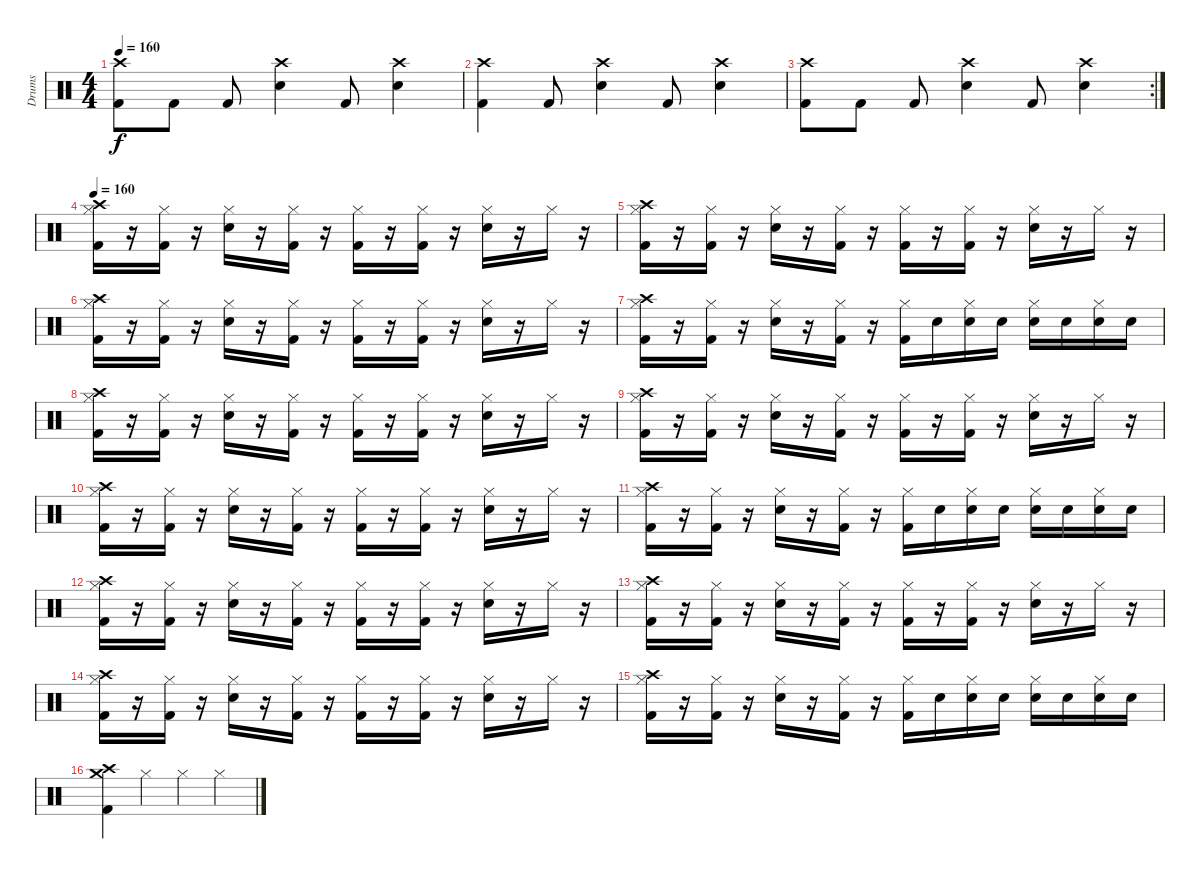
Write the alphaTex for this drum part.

\track ("Drums" "Drums") {instrument percussion}
\staff {score}
\articulation defaults
\ts (4 4)
\tempo 160
\clef neutral
\ks c
("Kick (hit) 2" "Crash high (hit)").8{dy f} "Kick (hit) 2".8 "Kick (hit) 2".8 ("Snare (hit) 2" "Crash high (hit)").4 "Kick (hit) 2".8 ("Snare (hit) 2" "Crash high (hit)").4 |
("Kick (hit) 2" "Crash high (hit)").4 "Kick (hit) 2".8 ("Snare (hit) 2" "Crash high (hit)").4 "Kick (hit) 2".8 ("Snare (hit) 2" "Crash high (hit)").4 |
\rc 2
("Kick (hit) 2" "Crash high (hit)").8 "Kick (hit) 2".8 "Kick (hit) 2".8 ("Snare (hit) 2" "Crash high (hit)").4 "Kick (hit) 2".8 ("Snare (hit) 2" "Crash high (hit)").4 |
\tempo 160
("Hi-Hat (closed)" "Kick (hit) 2" "Crash high (hit)").16 r.16 ("Hi-Hat (closed)" "Kick (hit) 2").16 r.16 ("Hi-Hat (closed)" "Snare (hit) 2").16 r.16 ("Hi-Hat (closed)" "Kick (hit) 2").16 r.16 ("Hi-Hat (closed)" "Kick (hit) 2").16 r.16 ("Hi-Hat (closed)" "Kick (hit) 2").16 r.16 ("Hi-Hat (closed)" "Snare (hit) 2").16 r.16 "Hi-Hat (closed)".16 r.16 |
("Hi-Hat (closed)" "Kick (hit) 2" "Crash high (hit)").16 r.16 ("Hi-Hat (closed)" "Kick (hit) 2").16 r.16 ("Hi-Hat (closed)" "Snare (hit) 2").16 r.16 ("Hi-Hat (closed)" "Kick (hit) 2").16 r.16 ("Hi-Hat (closed)" "Kick (hit) 2").16 r.16 ("Hi-Hat (closed)" "Kick (hit) 2").16 r.16 ("Hi-Hat (closed)" "Snare (hit) 2").16 r.16 "Hi-Hat (closed)".16 r.16 |
("Hi-Hat (closed)" "Kick (hit) 2" "Crash high (hit)").16 r.16 ("Hi-Hat (closed)" "Kick (hit) 2").16 r.16 ("Hi-Hat (closed)" "Snare (hit) 2").16 r.16 ("Hi-Hat (closed)" "Kick (hit) 2").16 r.16 ("Hi-Hat (closed)" "Kick (hit) 2").16 r.16 ("Hi-Hat (closed)" "Kick (hit) 2").16 r.16 ("Hi-Hat (closed)" "Snare (hit) 2").16 r.16 "Hi-Hat (closed)".16 r.16 |
("Hi-Hat (closed)" "Kick (hit) 2" "Crash high (hit)").16 r.16 ("Hi-Hat (closed)" "Kick (hit) 2").16 r.16 ("Hi-Hat (closed)" "Snare (hit) 2").16 r.16 ("Hi-Hat (closed)" "Kick (hit) 2").16 r.16 ("Hi-Hat (closed)" "Kick (hit) 2").16 "Snare (hit) 2".16 ("Hi-Hat (closed)" "Snare (hit) 2").16 "Snare (hit) 2".16 ("Hi-Hat (closed)" "Snare (hit) 2").16 "Snare (hit) 2".16 ("Hi-Hat (closed)" "Snare (hit) 2").16 "Snare (hit) 2".16 |
("Hi-Hat (closed)" "Kick (hit) 2" "Crash high (hit)").16 r.16 ("Hi-Hat (closed)" "Kick (hit) 2").16 r.16 ("Hi-Hat (closed)" "Snare (hit) 2").16 r.16 ("Hi-Hat (closed)" "Kick (hit) 2").16 r.16 ("Hi-Hat (closed)" "Kick (hit) 2").16 r.16 ("Hi-Hat (closed)" "Kick (hit) 2").16 r.16 ("Hi-Hat (closed)" "Snare (hit) 2").16 r.16 "Hi-Hat (closed)".16 r.16 |
("Hi-Hat (closed)" "Kick (hit) 2" "Crash high (hit)").16 r.16 ("Hi-Hat (closed)" "Kick (hit) 2").16 r.16 ("Hi-Hat (closed)" "Snare (hit) 2").16 r.16 ("Hi-Hat (closed)" "Kick (hit) 2").16 r.16 ("Hi-Hat (closed)" "Kick (hit) 2").16 r.16 ("Hi-Hat (closed)" "Kick (hit) 2").16 r.16 ("Hi-Hat (closed)" "Snare (hit) 2").16 r.16 "Hi-Hat (closed)".16 r.16 |
("Hi-Hat (closed)" "Kick (hit) 2" "Crash high (hit)").16 r.16 ("Hi-Hat (closed)" "Kick (hit) 2").16 r.16 ("Hi-Hat (closed)" "Snare (hit) 2").16 r.16 ("Hi-Hat (closed)" "Kick (hit) 2").16 r.16 ("Hi-Hat (closed)" "Kick (hit) 2").16 r.16 ("Hi-Hat (closed)" "Kick (hit) 2").16 r.16 ("Hi-Hat (closed)" "Snare (hit) 2").16 r.16 "Hi-Hat (closed)".16 r.16 |
("Hi-Hat (closed)" "Kick (hit) 2" "Crash high (hit)").16 r.16 ("Hi-Hat (closed)" "Kick (hit) 2").16 r.16 ("Hi-Hat (closed)" "Snare (hit) 2").16 r.16 ("Hi-Hat (closed)" "Kick (hit) 2").16 r.16 ("Hi-Hat (closed)" "Kick (hit) 2").16 "Snare (hit) 2".16 ("Hi-Hat (closed)" "Snare (hit) 2").16 "Snare (hit) 2".16 ("Hi-Hat (closed)" "Snare (hit) 2").16 "Snare (hit) 2".16 ("Hi-Hat (closed)" "Snare (hit) 2").16 "Snare (hit) 2".16 |
("Hi-Hat (closed)" "Kick (hit) 2" "Crash high (hit)").16 r.16 ("Hi-Hat (closed)" "Kick (hit) 2").16 r.16 ("Hi-Hat (closed)" "Snare (hit) 2").16 r.16 ("Hi-Hat (closed)" "Kick (hit) 2").16 r.16 ("Hi-Hat (closed)" "Kick (hit) 2").16 r.16 ("Hi-Hat (closed)" "Kick (hit) 2").16 r.16 ("Hi-Hat (closed)" "Snare (hit) 2").16 r.16 "Hi-Hat (closed)".16 r.16 |
("Hi-Hat (closed)" "Kick (hit) 2" "Crash high (hit)").16 r.16 ("Hi-Hat (closed)" "Kick (hit) 2").16 r.16 ("Hi-Hat (closed)" "Snare (hit) 2").16 r.16 ("Hi-Hat (closed)" "Kick (hit) 2").16 r.16 ("Hi-Hat (closed)" "Kick (hit) 2").16 r.16 ("Hi-Hat (closed)" "Kick (hit) 2").16 r.16 ("Hi-Hat (closed)" "Snare (hit) 2").16 r.16 "Hi-Hat (closed)".16 r.16 |
("Hi-Hat (closed)" "Kick (hit) 2" "Crash high (hit)").16 r.16 ("Hi-Hat (closed)" "Kick (hit) 2").16 r.16 ("Hi-Hat (closed)" "Snare (hit) 2").16 r.16 ("Hi-Hat (closed)" "Kick (hit) 2").16 r.16 ("Hi-Hat (closed)" "Kick (hit) 2").16 r.16 ("Hi-Hat (closed)" "Kick (hit) 2").16 r.16 ("Hi-Hat (closed)" "Snare (hit) 2").16 r.16 "Hi-Hat (closed)".16 r.16 |
("Hi-Hat (closed)" "Kick (hit) 2" "Crash high (hit)").16 r.16 ("Hi-Hat (closed)" "Kick (hit) 2").16 r.16 ("Hi-Hat (closed)" "Snare (hit) 2").16 r.16 ("Hi-Hat (closed)" "Kick (hit) 2").16 r.16 ("Hi-Hat (closed)" "Kick (hit) 2").16 "Snare (hit) 2".16 ("Hi-Hat (closed)" "Snare (hit) 2").16 "Snare (hit) 2".16 ("Hi-Hat (closed)" "Snare (hit) 2").16 "Snare (hit) 2".16 ("Hi-Hat (closed)" "Snare (hit) 2").16 "Snare (hit) 2".16 |
("Kick (hit) 2" "Crash high (hit)" "Crash medium (hit)").4 "Hi-Hat (closed)".4 "Hi-Hat (closed)".4 "Hi-Hat (closed)".4
